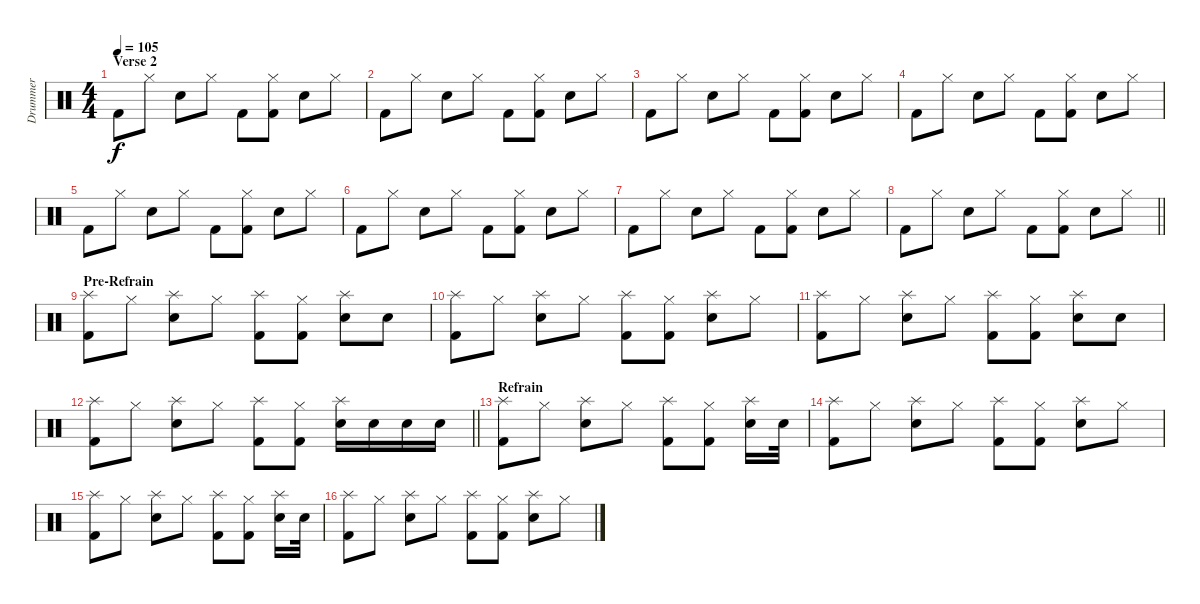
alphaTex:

\track ("Drummer" "Drummer") {instrument percussion}
\staff {score}
\articulation defaults
\ts (4 4)
\section ("" "Verse 2")
\tempo 105
\clef neutral
\ks c "Kick (hit) 2".8{dy f} "Hi-Hat (closed)".8 "Snare (hit) 2".8 "Hi-Hat (closed)".8 "Kick (hit) 2".8
("Hi-Hat (closed)" "Kick (hit) 2").8 "Snare (hit) 2".8 "Hi-Hat (closed)".8 |
"Kick (hit) 2".8 "Hi-Hat (closed)".8 "Snare (hit) 2".8 "Hi-Hat (closed)".8 "Kick (hit) 2".8 ("Hi-Hat (closed)" "Kick (hit) 2").8 "Snare (hit) 2".8 "Hi-Hat (closed)".8 |
"Kick (hit) 2".8 "Hi-Hat (closed)".8 "Snare (hit) 2".8 "Hi-Hat (closed)".8 "Kick (hit) 2".8 ("Hi-Hat (closed)" "Kick (hit) 2").8 "Snare (hit) 2".8 "Hi-Hat (closed)".8 |
"Kick (hit) 2".8 "Hi-Hat (closed)".8 "Snare (hit) 2".8 "Hi-Hat (closed)".8 "Kick (hit) 2".8 ("Hi-Hat (closed)" "Kick (hit) 2").8 "Snare (hit) 2".8 "Hi-Hat (closed)".8 |
"Kick (hit) 2".8 "Hi-Hat (closed)".8 "Snare (hit) 2".8 "Hi-Hat (closed)".8 "Kick (hit) 2".8 ("Hi-Hat (closed)" "Kick (hit) 2").8 "Snare (hit) 2".8 "Hi-Hat (closed)".8 |
"Kick (hit) 2".8 "Hi-Hat (closed)".8 "Snare (hit) 2".8 "Hi-Hat (closed)".8 "Kick (hit) 2".8 ("Hi-Hat (closed)" "Kick (hit) 2").8 "Snare (hit) 2".8 "Hi-Hat (closed)".8 |
"Kick (hit) 2".8 "Hi-Hat (closed)".8 "Snare (hit) 2".8 "Hi-Hat (closed)".8 "Kick (hit) 2".8 ("Hi-Hat (closed)" "Kick (hit) 2").8 "Snare (hit) 2".8 "Hi-Hat (closed)".8 |
\barLineRight lightlight "Kick (hit) 2".8 "Hi-Hat (closed)".8 "Snare (hit) 2".8 "Hi-Hat (closed)".8 "Kick (hit) 2".8
("Hi-Hat (closed)" "Kick (hit) 2").8 "Snare (hit) 2".8 "Hi-Hat (closed)".8 |
\section ("" "Pre-Refrain")
("Splash (hit)" "Kick (hit) 2").8 "Hi-Hat (closed)".8 ("Splash (hit)" "Snare (hit) 2").8 "Hi-Hat (closed)".8 ("Splash (hit)" "Kick (hit) 2").8 ("Hi-Hat (closed)" "Kick (hit) 2").8 ("Splash (hit)" "Snare (hit) 2").8 "Snare (hit) 2".8 |
("Splash (hit)" "Kick (hit) 2").8 "Hi-Hat (closed)".8 ("Splash (hit)" "Snare (hit) 2").8 "Hi-Hat (closed)".8 ("Splash (hit)" "Kick (hit) 2").8 ("Hi-Hat (closed)" "Kick (hit) 2").8 ("Splash (hit)" "Snare (hit) 2").8 "Hi-Hat (closed)".8 |
("Splash (hit)" "Kick (hit) 2").8 "Hi-Hat (closed)".8 ("Splash (hit)" "Snare (hit) 2").8 "Hi-Hat (closed)".8 ("Splash (hit)" "Kick (hit) 2").8 ("Hi-Hat (closed)" "Kick (hit) 2").8 ("Splash (hit)" "Snare (hit) 2").8 "Snare (hit) 2".8 |
\barLineRight lightlight
("Splash (hit)" "Kick (hit) 2").8 "Hi-Hat (closed)".8 ("Splash (hit)" "Snare (hit) 2").8 "Hi-Hat (closed)".8 ("Splash (hit)" "Kick (hit) 2").8 ("Hi-Hat (closed)" "Kick (hit) 2").8 ("Splash (hit)" "Snare (hit) 2").16 "Snare (hit) 2".16 "Snare (hit) 2".16 "Snare (hit) 2".16 |
\section ("" "Refrain")
("Splash (hit)" "Kick (hit) 2").8 "Hi-Hat (closed)".8 ("Splash (hit)" "Snare (hit) 2").8 "Hi-Hat (closed)".8 ("Splash (hit)" "Kick (hit) 2").8 ("Hi-Hat (closed)" "Kick (hit) 2").8 ("Splash (hit)" "Snare (hit) 2").16 "Snare (hit) 2".32 |
("Splash (hit)" "Kick (hit) 2").8 "Hi-Hat (closed)".8 ("Splash (hit)" "Snare (hit) 2").8 "Hi-Hat (closed)".8 ("Splash (hit)" "Kick (hit) 2").8 ("Hi-Hat (closed)" "Kick (hit) 2").8 ("Splash (hit)" "Snare (hit) 2").8 "Hi-Hat (closed)".8 |
("Splash (hit)" "Kick (hit) 2").8 "Hi-Hat (closed)".8 ("Splash (hit)" "Snare (hit) 2").8 "Hi-Hat (closed)".8 ("Splash (hit)" "Kick (hit) 2").8 ("Hi-Hat (closed)" "Kick (hit) 2").8 ("Splash (hit)" "Snare (hit) 2").16 "Snare (hit) 2".32 |
("Splash (hit)" "Kick (hit) 2").8 "Hi-Hat (closed)".8 ("Splash (hit)" "Snare (hit) 2").8 "Hi-Hat (closed)".8 ("Splash (hit)" "Kick (hit) 2").8 ("Hi-Hat (closed)" "Kick (hit) 2").8 ("Splash (hit)" "Snare (hit) 2").8 "Hi-Hat (closed)".8
